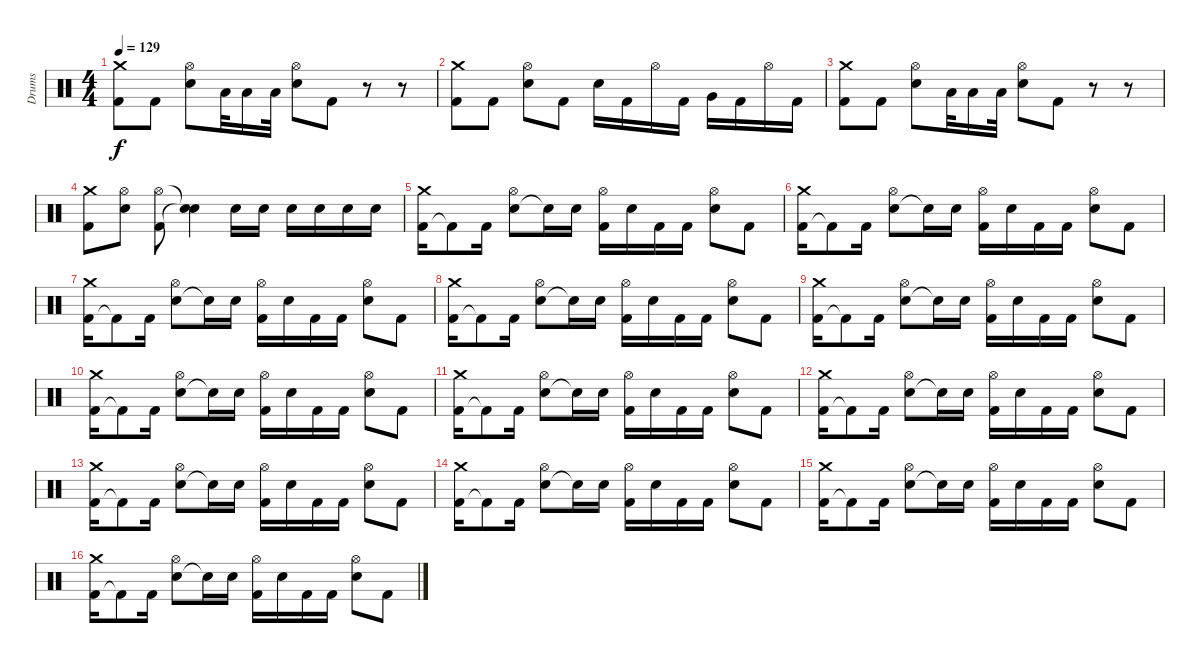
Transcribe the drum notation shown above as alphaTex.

\track ("Drums" "Drums") {instrument percussion}
\staff {score}
\articulation defaults
\ts (4 4)
\tempo 129
\clef neutral
\ks c
("Kick (hit) 2" "Crash medium (hit)").8{dy f} "Kick (hit) 2".8 ("Snare (hit) 2" "Hi-Hat (open)").8 "Low Tom (hit)".32 "Low Tom (hit)".16 "Low Tom (hit)".32 ("Snare (hit) 2" "Hi-Hat (open)").8 "Kick (hit) 2".8 r.8 r.8 |
("Kick (hit) 2" "Crash medium (hit)").8 "Kick (hit) 2".8 ("Snare (hit) 2" "Hi-Hat (open)").8 "Kick (hit) 2".8 "Snare (hit) 2".16 "Kick (hit) 2".16 "Hi-Hat (open)".16 "Kick (hit) 2".16 "Very Low Tom (hit)".16 "Kick (hit) 2".16 "Hi-Hat (open)".16 "Kick (hit) 2".16 |
("Kick (hit) 2" "Crash medium (hit)").8 "Kick (hit) 2".8 ("Snare (hit) 2" "Hi-Hat (open)").8 "Low Tom (hit)".32 "Low Tom (hit)".16 "Low Tom (hit)".32 ("Snare (hit) 2" "Hi-Hat (open)").8 "Kick (hit) 2".8 r.8 r.8 |
("Kick (hit) 2" "Crash medium (hit)").8 ("Snare (hit) 2" "Hi-Hat (open)").8 ("Kick (hit) 2" "Hi-Hat (open)").8 ("Snare (hit)"{t} "Snare (hit)"{t}).4 "Snare (hit) 2".16 "Snare (hit) 2".16 "Snare (hit) 2".16 "Snare (hit) 2".16 "Snare (hit) 2".16 "Snare (hit) 2".16 |
("Kick (hit) 2" "Crash medium (hit)").16 "Kick (hit) 2"{t}.8 "Kick (hit) 2".16 ("Snare (hit) 2" "Hi-Hat (open)").8 "Snare (hit)"{t}.16 "Snare (hit) 2".16 ("Kick (hit) 2" "Hi-Hat (open)").16 "Snare (hit) 2".16 "Kick (hit) 2".16 "Kick (hit) 2".16 ("Snare (hit) 2" "Hi-Hat (open)").8 "Kick (hit) 2".8 |
("Kick (hit) 2" "Crash medium (hit)").16 "Kick (hit) 2"{t}.8 "Kick (hit) 2".16 ("Snare (hit) 2" "Hi-Hat (open)").8 "Snare (hit)"{t}.16 "Snare (hit) 2".16 ("Kick (hit) 2" "Hi-Hat (open)").16 "Snare (hit) 2".16 "Kick (hit) 2".16 "Kick (hit) 2".16 ("Snare (hit) 2" "Hi-Hat (open)").8 "Kick (hit) 2".8 |
("Kick (hit) 2" "Crash medium (hit)").16 "Kick (hit) 2"{t}.8 "Kick (hit) 2".16 ("Snare (hit) 2" "Hi-Hat (open)").8 "Snare (hit)"{t}.16 "Snare (hit) 2".16 ("Kick (hit) 2" "Hi-Hat (open)").16 "Snare (hit) 2".16 "Kick (hit) 2".16 "Kick (hit) 2".16 ("Snare (hit) 2" "Hi-Hat (open)").8 "Kick (hit) 2".8 |
("Kick (hit) 2" "Crash medium (hit)").16 "Kick (hit) 2"{t}.8 "Kick (hit) 2".16 ("Snare (hit) 2" "Hi-Hat (open)").8 "Snare (hit)"{t}.16 "Snare (hit) 2".16 ("Kick (hit) 2" "Hi-Hat (open)").16 "Snare (hit) 2".16 "Kick (hit) 2".16 "Kick (hit) 2".16 ("Snare (hit) 2" "Hi-Hat (open)").8 "Kick (hit) 2".8 |
("Kick (hit) 2" "Crash medium (hit)").16 "Kick (hit) 2"{t}.8 "Kick (hit) 2".16 ("Snare (hit) 2" "Hi-Hat (open)").8 "Snare (hit)"{t}.16 "Snare (hit) 2".16 ("Kick (hit) 2" "Hi-Hat (open)").16 "Snare (hit) 2".16 "Kick (hit) 2".16 "Kick (hit) 2".16 ("Snare (hit) 2" "Hi-Hat (open)").8 "Kick (hit) 2".8 |
("Kick (hit) 2" "Crash medium (hit)").16 "Kick (hit) 2"{t}.8 "Kick (hit) 2".16 ("Snare (hit) 2" "Hi-Hat (open)").8 "Snare (hit)"{t}.16 "Snare (hit) 2".16 ("Kick (hit) 2" "Hi-Hat (open)").16 "Snare (hit) 2".16 "Kick (hit) 2".16 "Kick (hit) 2".16 ("Snare (hit) 2" "Hi-Hat (open)").8 "Kick (hit) 2".8 |
("Kick (hit) 2" "Crash medium (hit)").16 "Kick (hit) 2"{t}.8 "Kick (hit) 2".16 ("Snare (hit) 2" "Hi-Hat (open)").8 "Snare (hit)"{t}.16 "Snare (hit) 2".16 ("Kick (hit) 2" "Hi-Hat (open)").16 "Snare (hit) 2".16 "Kick (hit) 2".16 "Kick (hit) 2".16 ("Snare (hit) 2" "Hi-Hat (open)").8 "Kick (hit) 2".8 |
("Kick (hit) 2" "Crash medium (hit)").16 "Kick (hit) 2"{t}.8 "Kick (hit) 2".16 ("Snare (hit) 2" "Hi-Hat (open)").8 "Snare (hit)"{t}.16 "Snare (hit) 2".16 ("Kick (hit) 2" "Hi-Hat (open)").16 "Snare (hit) 2".16 "Kick (hit) 2".16 "Kick (hit) 2".16 ("Snare (hit) 2" "Hi-Hat (open)").8 "Kick (hit) 2".8 |
("Kick (hit) 2" "Crash medium (hit)").16 "Kick (hit) 2"{t}.8 "Kick (hit) 2".16 ("Snare (hit) 2" "Hi-Hat (open)").8 "Snare (hit)"{t}.16 "Snare (hit) 2".16 ("Kick (hit) 2" "Hi-Hat (open)").16 "Snare (hit) 2".16 "Kick (hit) 2".16 "Kick (hit) 2".16 ("Snare (hit) 2" "Hi-Hat (open)").8 "Kick (hit) 2".8 |
("Kick (hit) 2" "Crash medium (hit)").16 "Kick (hit) 2"{t}.8 "Kick (hit) 2".16 ("Snare (hit) 2" "Hi-Hat (open)").8 "Snare (hit)"{t}.16 "Snare (hit) 2".16 ("Kick (hit) 2" "Hi-Hat (open)").16 "Snare (hit) 2".16 "Kick (hit) 2".16 "Kick (hit) 2".16 ("Snare (hit) 2" "Hi-Hat (open)").8 "Kick (hit) 2".8 |
("Kick (hit) 2" "Crash medium (hit)").16 "Kick (hit) 2"{t}.8 "Kick (hit) 2".16 ("Snare (hit) 2" "Hi-Hat (open)").8 "Snare (hit)"{t}.16 "Snare (hit) 2".16 ("Kick (hit) 2" "Hi-Hat (open)").16 "Snare (hit) 2".16 "Kick (hit) 2".16 "Kick (hit) 2".16 ("Snare (hit) 2" "Hi-Hat (open)").8 "Kick (hit) 2".8 |
("Kick (hit) 2" "Crash medium (hit)").16 "Kick (hit) 2"{t}.8 "Kick (hit) 2".16 ("Snare (hit) 2" "Hi-Hat (open)").8 "Snare (hit)"{t}.16 "Snare (hit) 2".16 ("Kick (hit) 2" "Hi-Hat (open)").16 "Snare (hit) 2".16 "Kick (hit) 2".16 "Kick (hit) 2".16 ("Snare (hit) 2" "Hi-Hat (open)").8 "Kick (hit) 2".8
